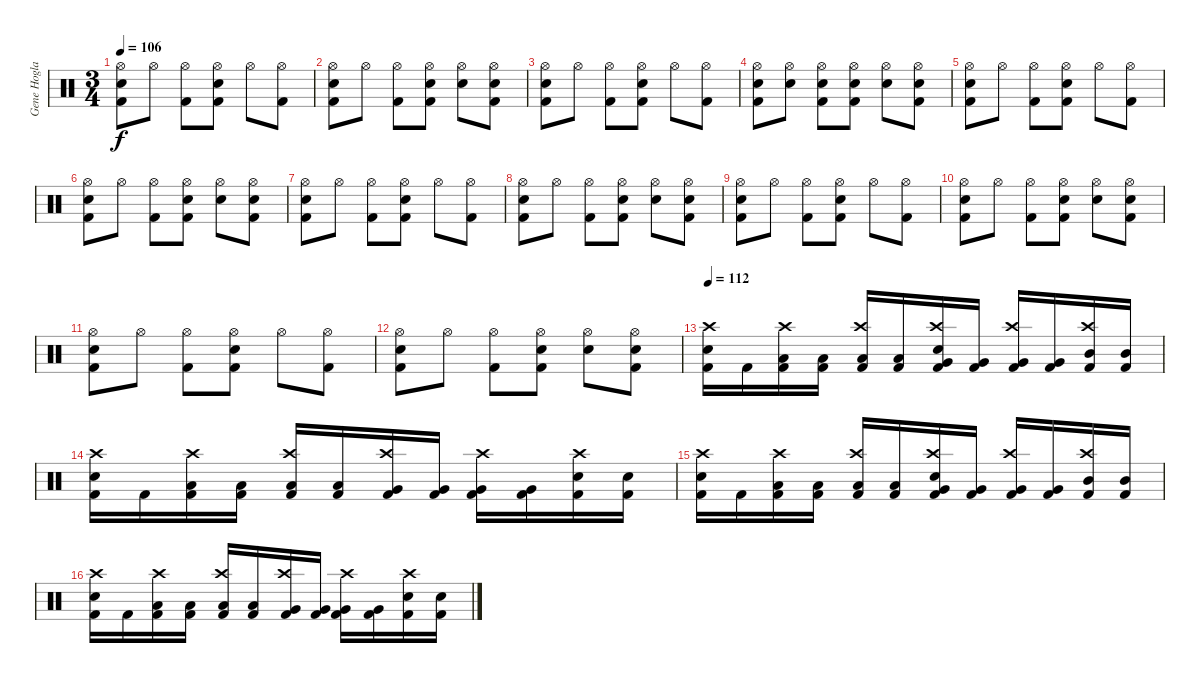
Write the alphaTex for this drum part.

\track ("Gene Hogland" "Gene Hogla") {instrument percussion}
\staff {score}
\articulation defaults
\ts (3 4)
\tempo 106
\clef neutral
\ks c
("Hi-Hat (open)" "Electric Snare (hit)" "Kick (hit) 2").8{dy f} "Hi-Hat (open)".8 ("Hi-Hat (open)" "Kick (hit) 2").8 ("Hi-Hat (open)" "Electric Snare (hit)" "Kick (hit) 2").8 "Hi-Hat (open)".8 ("Hi-Hat (open)" "Kick (hit) 2").8 |
("Hi-Hat (open)" "Electric Snare (hit)" "Kick (hit) 2").8 "Hi-Hat (open)".8 ("Hi-Hat (open)" "Kick (hit) 2").8 ("Hi-Hat (open)" "Electric Snare (hit)" "Kick (hit) 2").8 ("Hi-Hat (open)" "Electric Snare (hit)").8 ("Hi-Hat (open)" "Electric Snare (hit)" "Kick (hit) 2").8 |
("Hi-Hat (open)" "Electric Snare (hit)" "Kick (hit) 2").8 "Hi-Hat (open)".8 ("Hi-Hat (open)" "Kick (hit) 2").8 ("Hi-Hat (open)" "Electric Snare (hit)" "Kick (hit) 2").8 "Hi-Hat (open)".8 ("Hi-Hat (open)" "Kick (hit) 2").8 |
("Hi-Hat (open)" "Electric Snare (hit)" "Kick (hit) 2").8 ("Hi-Hat (open)" "Electric Snare (hit)").8 ("Hi-Hat (open)" "Electric Snare (hit)" "Kick (hit) 2").8 ("Hi-Hat (open)" "Electric Snare (hit)" "Kick (hit) 2").8 ("Hi-Hat (open)" "Electric Snare (hit)").8 ("Hi-Hat (open)" "Electric Snare (hit)" "Kick (hit) 2").8 |
("Hi-Hat (open)" "Electric Snare (hit)" "Kick (hit) 2").8 "Hi-Hat (open)".8 ("Hi-Hat (open)" "Kick (hit) 2").8 ("Hi-Hat (open)" "Electric Snare (hit)" "Kick (hit) 2").8 "Hi-Hat (open)".8 ("Hi-Hat (open)" "Kick (hit) 2").8 |
("Hi-Hat (open)" "Electric Snare (hit)" "Kick (hit) 2").8 "Hi-Hat (open)".8 ("Hi-Hat (open)" "Kick (hit) 2").8 ("Hi-Hat (open)" "Electric Snare (hit)" "Kick (hit) 2").8 ("Hi-Hat (open)" "Electric Snare (hit)").8 ("Hi-Hat (open)" "Electric Snare (hit)" "Kick (hit) 2").8 |
("Hi-Hat (open)" "Electric Snare (hit)" "Kick (hit) 2").8 "Hi-Hat (open)".8 ("Hi-Hat (open)" "Kick (hit) 2").8 ("Hi-Hat (open)" "Electric Snare (hit)" "Kick (hit) 2").8 "Hi-Hat (open)".8 ("Hi-Hat (open)" "Kick (hit) 2").8 |
("Hi-Hat (open)" "Electric Snare (hit)" "Kick (hit) 2").8 "Hi-Hat (open)".8 ("Hi-Hat (open)" "Kick (hit) 2").8 ("Hi-Hat (open)" "Electric Snare (hit)" "Kick (hit) 2").8 ("Hi-Hat (open)" "Electric Snare (hit)").8 ("Hi-Hat (open)" "Electric Snare (hit)" "Kick (hit) 2").8 |
("Hi-Hat (open)" "Electric Snare (hit)" "Kick (hit) 2").8 "Hi-Hat (open)".8 ("Hi-Hat (open)" "Kick (hit) 2").8 ("Hi-Hat (open)" "Electric Snare (hit)" "Kick (hit) 2").8 "Hi-Hat (open)".8 ("Hi-Hat (open)" "Kick (hit) 2").8 |
("Hi-Hat (open)" "Electric Snare (hit)" "Kick (hit) 2").8 "Hi-Hat (open)".8 ("Hi-Hat (open)" "Kick (hit) 2").8 ("Hi-Hat (open)" "Electric Snare (hit)" "Kick (hit) 2").8 ("Hi-Hat (open)" "Electric Snare (hit)").8 ("Hi-Hat (open)" "Electric Snare (hit)" "Kick (hit) 2").8 |
("Hi-Hat (open)" "Electric Snare (hit)" "Kick (hit) 2").8 "Hi-Hat (open)".8 ("Hi-Hat (open)" "Kick (hit) 2").8 ("Hi-Hat (open)" "Electric Snare (hit)" "Kick (hit) 2").8 "Hi-Hat (open)".8 ("Hi-Hat (open)" "Kick (hit) 2").8 |
("Hi-Hat (open)" "Electric Snare (hit)" "Kick (hit) 2").8 "Hi-Hat (open)".8 ("Hi-Hat (open)" "Kick (hit) 2").8 ("Hi-Hat (open)" "Electric Snare (hit)" "Kick (hit) 2").8 ("Hi-Hat (open)" "Electric Snare (hit)").8 ("Hi-Hat (open)" "Electric Snare (hit)" "Kick (hit) 2").8 |
\tempo 112
("Crash high (hit)" "Electric Snare (hit)" "Kick (hit) 2").16 "Kick (hit) 2".16 ("Crash high (hit)" "Low Tom (hit)" "Kick (hit) 2").16 ("Low Tom (hit)" "Kick (hit) 2").16 ("Crash high (hit)" "Low Tom (hit)" "Kick (hit) 2").16 ("Low Tom (hit)" "Kick (hit) 2").16 ("Crash high (hit)" "Electric Snare (hit)" "Very Low Tom (hit)" "Kick (hit) 2").16 ("Very Low Tom (hit)" "Kick (hit) 2").16 ("Crash high (hit)" "Very Low Tom (hit)" "Kick (hit) 2").16 ("Very Low Tom (hit)" "Kick (hit) 2").16 ("Crash high (hit)" "Mid Tom (hit)" "Kick (hit) 2").16 ("Mid Tom (hit)" "Kick (hit) 2").16 |
("Crash high (hit)" "Electric Snare (hit)" "Kick (hit) 2").16 "Kick (hit) 2".16 ("Crash high (hit)" "Low Tom (hit)" "Kick (hit) 2").16 ("Low Tom (hit)" "Kick (hit) 2").16 ("Crash high (hit)" "Low Tom (hit)" "Kick (hit) 2").16 ("Low Tom (hit)" "Kick (hit) 2").16 ("Crash high (hit)" "Very Low Tom (hit)" "Kick (hit) 2").16 ("Very Low Tom (hit)" "Kick (hit) 2").16 ("Crash high (hit)" "Very Low Tom (hit)" "Kick (hit) 2").16 ("Very Low Tom (hit)" "Kick (hit) 2").16 ("Crash high (hit)" "Electric Snare (hit)" "Kick (hit) 2").16 ("Electric Snare (hit)" "Kick (hit) 2").16 |
("Crash high (hit)" "Electric Snare (hit)" "Kick (hit) 2").16 "Kick (hit) 2".16 ("Crash high (hit)" "Low Tom (hit)" "Kick (hit) 2").16 ("Low Tom (hit)" "Kick (hit) 2").16 ("Crash high (hit)" "Low Tom (hit)" "Kick (hit) 2").16 ("Low Tom (hit)" "Kick (hit) 2").16 ("Crash high (hit)" "Electric Snare (hit)" "Very Low Tom (hit)" "Kick (hit) 2").16 ("Very Low Tom (hit)" "Kick (hit) 2").16 ("Crash high (hit)" "Very Low Tom (hit)" "Kick (hit) 2").16 ("Very Low Tom (hit)" "Kick (hit) 2").16 ("Crash high (hit)" "Mid Tom (hit)" "Kick (hit) 2").16 ("Mid Tom (hit)" "Kick (hit) 2").16 |
("Crash high (hit)" "Electric Snare (hit)" "Kick (hit) 2").16 "Kick (hit) 2".16 ("Crash high (hit)" "Low Tom (hit)" "Kick (hit) 2").16 ("Low Tom (hit)" "Kick (hit) 2").16 ("Crash high (hit)" "Low Tom (hit)" "Kick (hit) 2").16 ("Low Tom (hit)" "Kick (hit) 2").16 ("Crash high (hit)" "Very Low Tom (hit)" "Kick (hit) 2").16 ("Very Low Tom (hit)" "Kick (hit) 2").16 ("Crash high (hit)" "Very Low Tom (hit)" "Kick (hit) 2").16 ("Very Low Tom (hit)" "Kick (hit) 2").16 ("Crash high (hit)" "Electric Snare (hit)" "Kick (hit) 2").16 ("Electric Snare (hit)" "Kick (hit) 2").16
